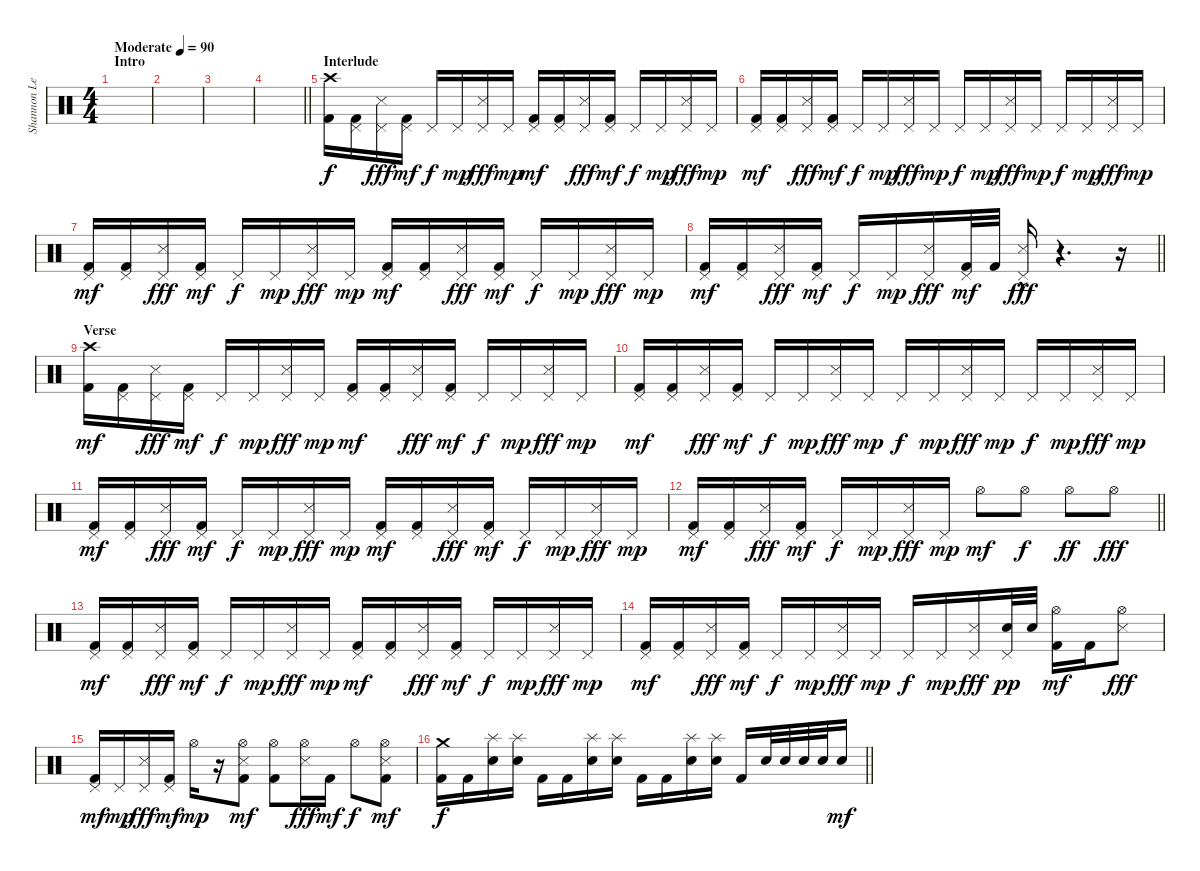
\track ("Shannon Leto - Drums" "Shannon Le") {instrument percussion}
\staff {score}
\articulation defaults
\ts (4 4)
\section ("" "Intro")
\tempo (90 "Moderate")
\clef neutral
\ks c
|
|
|
\barLineRight lightlight
|
\section ("" "Interlude")
("Crash high (hit)" "Kick (hit) 2").16 ("Pedal Hi-Hat (hit)" "Kick (hit) 2").16 ("Pedal Hi-Hat (hit)" "Snare (side stick) 3").16{dy fff} ("Pedal Hi-Hat (hit)" "Kick (hit) 2").16{dy mf} "Pedal Hi-Hat (hit)".16{dy f} "Pedal Hi-Hat (hit)".16{dy mp} ("Pedal Hi-Hat (hit)" "Snare (side stick) 3").16{dy fff} "Pedal Hi-Hat (hit)".16{dy mp} ("Pedal Hi-Hat (hit)" "Kick (hit) 2").16{dy mf} ("Pedal Hi-Hat (hit)" "Kick (hit) 2").16 ("Pedal Hi-Hat (hit)" "Snare (side stick) 3").16{dy fff} ("Pedal Hi-Hat (hit)" "Kick (hit) 2").16{dy mf} "Pedal Hi-Hat (hit)".16{dy f} "Pedal Hi-Hat (hit)".16{dy mp} ("Pedal Hi-Hat (hit)" "Snare (side stick) 3").16{dy fff} "Pedal Hi-Hat (hit)".16{dy mp} |
("Pedal Hi-Hat (hit)" "Kick (hit) 2").16{dy mf} ("Pedal Hi-Hat (hit)" "Kick (hit) 2").16 ("Pedal Hi-Hat (hit)" "Snare (side stick) 3").16{dy fff} ("Pedal Hi-Hat (hit)" "Kick (hit) 2").16{dy mf} "Pedal Hi-Hat (hit)".16{dy f} "Pedal Hi-Hat (hit)".16{dy mp} ("Pedal Hi-Hat (hit)" "Snare (side stick) 3").16{dy fff} "Pedal Hi-Hat (hit)".16{dy mp} "Pedal Hi-Hat (hit)".16{dy f} "Pedal Hi-Hat (hit)".16{dy mp} ("Pedal Hi-Hat (hit)" "Snare (side stick) 3").16{dy fff} "Pedal Hi-Hat (hit)".16{dy mp} "Pedal Hi-Hat (hit)".16{dy f} "Pedal Hi-Hat (hit)".16{dy mp} ("Pedal Hi-Hat (hit)" "Snare (side stick) 3").16{dy fff} "Pedal Hi-Hat (hit)".16{dy mp} |
("Pedal Hi-Hat (hit)" "Kick (hit) 2").16{dy mf} ("Pedal Hi-Hat (hit)" "Kick (hit) 2").16 ("Pedal Hi-Hat (hit)" "Snare (side stick) 3").16{dy fff} ("Pedal Hi-Hat (hit)" "Kick (hit) 2").16{dy mf} "Pedal Hi-Hat (hit)".16{dy f} "Pedal Hi-Hat (hit)".16{dy mp} ("Pedal Hi-Hat (hit)" "Snare (side stick) 3").16{dy fff} "Pedal Hi-Hat (hit)".16{dy mp} ("Pedal Hi-Hat (hit)" "Kick (hit) 2").16{dy mf} ("Pedal Hi-Hat (hit)" "Kick (hit) 2").16 ("Pedal Hi-Hat (hit)" "Snare (side stick) 3").16{dy fff} ("Pedal Hi-Hat (hit)" "Kick (hit) 2").16{dy mf} "Pedal Hi-Hat (hit)".16{dy f} "Pedal Hi-Hat (hit)".16{dy mp} ("Pedal Hi-Hat (hit)" "Snare (side stick) 3").16{dy fff} "Pedal Hi-Hat (hit)".16{dy mp} |
\barLineRight lightlight
("Pedal Hi-Hat (hit)" "Kick (hit) 2").16{dy mf} ("Pedal Hi-Hat (hit)" "Kick (hit) 2").16 ("Pedal Hi-Hat (hit)" "Snare (side stick) 3").16{dy fff} ("Pedal Hi-Hat (hit)" "Kick (hit) 2").16{dy mf} "Pedal Hi-Hat (hit)".16{dy f} "Pedal Hi-Hat (hit)".16{dy mp} ("Pedal Hi-Hat (hit)" "Snare (side stick) 3").16{dy fff} ("Pedal Hi-Hat (hit)" "Kick (hit) 2").32{dy mf} "Kick (hit) 2".32 ("Pedal Hi-Hat (hit)" "Snare (side stick) 3"{hac}).16{dy fff} r.4{d} r.16 |
\section ("" "Verse")
("Crash high (hit)" "Kick (hit) 2").16{dy mf} ("Pedal Hi-Hat (hit)" "Kick (hit) 2").16 ("Pedal Hi-Hat (hit)" "Snare (side stick) 3").16{dy fff} ("Pedal Hi-Hat (hit)" "Kick (hit) 2").16{dy mf} "Pedal Hi-Hat (hit)".16{dy f} "Pedal Hi-Hat (hit)".16{dy mp} ("Pedal Hi-Hat (hit)" "Snare (side stick) 3").16{dy fff} "Pedal Hi-Hat (hit)".16{dy mp} ("Pedal Hi-Hat (hit)" "Kick (hit) 2").16{dy mf} ("Pedal Hi-Hat (hit)" "Kick (hit) 2").16 ("Pedal Hi-Hat (hit)" "Snare (side stick) 3").16{dy fff} ("Pedal Hi-Hat (hit)" "Kick (hit) 2").16{dy mf} "Pedal Hi-Hat (hit)".16{dy f} "Pedal Hi-Hat (hit)".16{dy mp} ("Pedal Hi-Hat (hit)" "Snare (side stick) 3").16{dy fff} "Pedal Hi-Hat (hit)".16{dy mp} |
("Pedal Hi-Hat (hit)" "Kick (hit) 2").16{dy mf} ("Pedal Hi-Hat (hit)" "Kick (hit) 2").16 ("Pedal Hi-Hat (hit)" "Snare (side stick) 3").16{dy fff} ("Pedal Hi-Hat (hit)" "Kick (hit) 2").16{dy mf} "Pedal Hi-Hat (hit)".16{dy f} "Pedal Hi-Hat (hit)".16{dy mp} ("Pedal Hi-Hat (hit)" "Snare (side stick) 3").16{dy fff} "Pedal Hi-Hat (hit)".16{dy mp} "Pedal Hi-Hat (hit)".16{dy f} "Pedal Hi-Hat (hit)".16{dy mp} ("Pedal Hi-Hat (hit)" "Snare (side stick) 3").16{dy fff} "Pedal Hi-Hat (hit)".16{dy mp} "Pedal Hi-Hat (hit)".16{dy f} "Pedal Hi-Hat (hit)".16{dy mp} ("Pedal Hi-Hat (hit)" "Snare (side stick) 3").16{dy fff} "Pedal Hi-Hat (hit)".16{dy mp} |
("Pedal Hi-Hat (hit)" "Kick (hit) 2").16{dy mf} ("Pedal Hi-Hat (hit)" "Kick (hit) 2").16 ("Pedal Hi-Hat (hit)" "Snare (side stick) 3").16{dy fff} ("Pedal Hi-Hat (hit)" "Kick (hit) 2").16{dy mf} "Pedal Hi-Hat (hit)".16{dy f} "Pedal Hi-Hat (hit)".16{dy mp} ("Pedal Hi-Hat (hit)" "Snare (side stick) 3").16{dy fff} "Pedal Hi-Hat (hit)".16{dy mp} ("Pedal Hi-Hat (hit)" "Kick (hit) 2").16{dy mf} ("Pedal Hi-Hat (hit)" "Kick (hit) 2").16 ("Pedal Hi-Hat (hit)" "Snare (side stick) 3").16{dy fff} ("Pedal Hi-Hat (hit)" "Kick (hit) 2").16{dy mf} "Pedal Hi-Hat (hit)".16{dy f} "Pedal Hi-Hat (hit)".16{dy mp} ("Pedal Hi-Hat (hit)" "Snare (side stick) 3").16{dy fff} "Pedal Hi-Hat (hit)".16{dy mp} |
\barLineRight lightlight
("Pedal Hi-Hat (hit)" "Kick (hit) 2").16{dy mf} ("Pedal Hi-Hat (hit)" "Kick (hit) 2").16 ("Pedal Hi-Hat (hit)" "Snare (side stick) 3").16{dy fff} ("Pedal Hi-Hat (hit)" "Kick (hit) 2").16{dy mf} "Pedal Hi-Hat (hit)".16{dy f} "Pedal Hi-Hat (hit)".16{dy mp} ("Pedal Hi-Hat (hit)" "Snare (side stick) 3").16{dy fff} "Pedal Hi-Hat (hit)".16{dy mp} "Hi-Hat (open)".8{dy mf} "Hi-Hat (open)".8{dy f} "Hi-Hat (open)".8{dy ff} "Hi-Hat (open)".8{dy fff} |
\section ("" "")
("Pedal Hi-Hat (hit)" "Kick (hit) 2").16{dy mf} ("Pedal Hi-Hat (hit)" "Kick (hit) 2").16 ("Pedal Hi-Hat (hit)" "Snare (side stick) 3").16{dy fff} ("Pedal Hi-Hat (hit)" "Kick (hit) 2").16{dy mf} "Pedal Hi-Hat (hit)".16{dy f} "Pedal Hi-Hat (hit)".16{dy mp} ("Pedal Hi-Hat (hit)" "Snare (side stick) 3").16{dy fff} "Pedal Hi-Hat (hit)".16{dy mp} ("Pedal Hi-Hat (hit)" "Kick (hit) 2").16{dy mf} ("Pedal Hi-Hat (hit)" "Kick (hit) 2").16 ("Pedal Hi-Hat (hit)" "Snare (side stick) 3").16{dy fff} ("Pedal Hi-Hat (hit)" "Kick (hit) 2").16{dy mf} "Pedal Hi-Hat (hit)".16{dy f} "Pedal Hi-Hat (hit)".16{dy mp} ("Pedal Hi-Hat (hit)" "Snare (side stick) 3").16{dy fff} "Pedal Hi-Hat (hit)".16{dy mp} |
("Pedal Hi-Hat (hit)" "Kick (hit) 2").16{dy mf} ("Pedal Hi-Hat (hit)" "Kick (hit) 2").16 ("Pedal Hi-Hat (hit)" "Snare (side stick) 3").16{dy fff} ("Pedal Hi-Hat (hit)" "Kick (hit) 2").16{dy mf} "Pedal Hi-Hat (hit)".16{dy f} "Pedal Hi-Hat (hit)".16{dy mp} ("Pedal Hi-Hat (hit)" "Snare (side stick) 3").16{dy fff} "Pedal Hi-Hat (hit)".16{dy mp} "Pedal Hi-Hat (hit)".16{dy f} "Pedal Hi-Hat (hit)".16{dy mp} ("Pedal Hi-Hat (hit)" "Snare (side stick) 3").16{dy fff} ("Pedal Hi-Hat (hit)" "Electric Snare (hit)").32{dy pp} "Electric Snare (hit)".32 ("Hi-Hat (open)" "Kick (hit) 2").16{dy mf} "Kick (hit) 2".16 ("Hi-Hat (open)" "Snare (side stick) 3").8{dy fff} |
("Pedal Hi-Hat (hit)" "Kick (hit) 2").16{dy mf} "Pedal Hi-Hat (hit)".16{dy mp} ("Pedal Hi-Hat (hit)" "Snare (side stick) 3").16{dy fff} ("Pedal Hi-Hat (hit)" "Kick (hit) 2").16{dy mf} "Hi-Hat (open)".16{dy mp} r.16 ("Hi-Hat (open)" "Snare (side stick) 3" "Kick (hit) 2").8{dy mf} ("Hi-Hat (open)" "Kick (hit) 2").8 ("Hi-Hat (open)" "Snare (side stick) 3").16{dy fff} "Kick (hit) 2".16{dy mf} "Hi-Hat (open)".8{dy f} ("Hi-Hat (open)" "Snare (side stick) 3" "Kick (hit) 2").8{dy mf} |
\barLineRight lightlight
("Crash medium (hit)" "Kick (hit) 2").16{dy f} "Kick (hit) 2".16 ("Splash (hit)" "Electric Snare (hit)").16 ("Splash (hit)" "Electric Snare (hit)").16 "Kick (hit) 2".16 "Kick (hit) 2".16 ("Splash (hit)" "Electric Snare (hit)").16 ("Splash (hit)" "Electric Snare (hit)").16 "Kick (hit) 2".16 "Kick (hit) 2".16 ("Splash (hit)" "Electric Snare (hit)").16 ("Splash (hit)" "Electric Snare (hit)").16 "Kick (hit) 2".16 "Electric Snare (hit)".32 "Electric Snare (hit)".32 "Electric Snare (hit)".32 "Electric Snare (hit)".32 "Electric Snare (hit)".16{dy mf}
